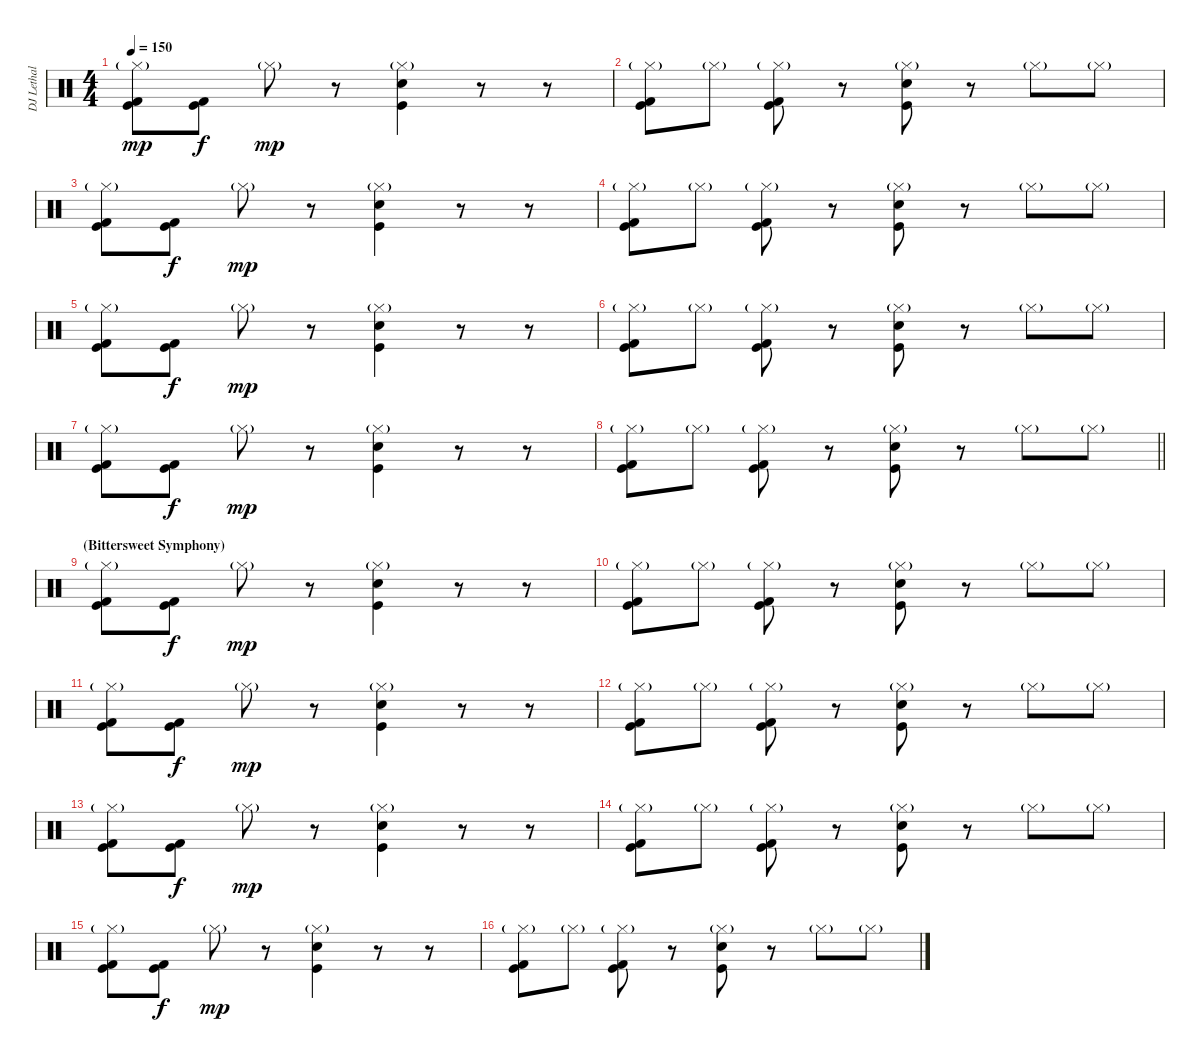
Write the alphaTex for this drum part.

\track ("DJ Lethal (Beats 2)" "DJ Lethal ") {instrument percussion}
\staff {score}
\articulation defaults
\ts (4 4)
\tempo 150
\clef neutral
\ks c
("Hi-Hat (closed)"{g} "Kick (hit) 2" "Kick (hit)").8{dy mp} ("Kick (hit) 2" "Kick (hit)").8{dy f} "Hi-Hat (closed)"{g}.8{dy mp} r.8 ("Hi-Hat (closed)"{g} "Snare (hit) 2" "Kick (hit)").4 r.8 r.8 |
("Hi-Hat (closed)"{g} "Kick (hit) 2" "Kick (hit)").8 "Hi-Hat (closed)"{g}.8 ("Hi-Hat (closed)"{g} "Kick (hit) 2" "Kick (hit)").8 r.8 ("Hi-Hat (closed)"{g} "Snare (hit) 2" "Kick (hit)").8 r.8 "Hi-Hat (closed)"{g}.8 "Hi-Hat (closed)"{g}.8 |
("Hi-Hat (closed)"{g} "Kick (hit) 2" "Kick (hit)").8 ("Kick (hit) 2" "Kick (hit)").8{dy f} "Hi-Hat (closed)"{g}.8{dy mp} r.8 ("Hi-Hat (closed)"{g} "Snare (hit) 2" "Kick (hit)").4 r.8 r.8 |
("Hi-Hat (closed)"{g} "Kick (hit) 2" "Kick (hit)").8 "Hi-Hat (closed)"{g}.8 ("Hi-Hat (closed)"{g} "Kick (hit) 2" "Kick (hit)").8 r.8 ("Hi-Hat (closed)"{g} "Snare (hit) 2" "Kick (hit)").8 r.8 "Hi-Hat (closed)"{g}.8 "Hi-Hat (closed)"{g}.8 |
("Hi-Hat (closed)"{g} "Kick (hit) 2" "Kick (hit)").8 ("Kick (hit) 2" "Kick (hit)").8{dy f} "Hi-Hat (closed)"{g}.8{dy mp} r.8 ("Hi-Hat (closed)"{g} "Snare (hit) 2" "Kick (hit)").4 r.8 r.8 |
("Hi-Hat (closed)"{g} "Kick (hit) 2" "Kick (hit)").8 "Hi-Hat (closed)"{g}.8 ("Hi-Hat (closed)"{g} "Kick (hit) 2" "Kick (hit)").8 r.8 ("Hi-Hat (closed)"{g} "Snare (hit) 2" "Kick (hit)").8 r.8 "Hi-Hat (closed)"{g}.8 "Hi-Hat (closed)"{g}.8 |
("Hi-Hat (closed)"{g} "Kick (hit) 2" "Kick (hit)").8 ("Kick (hit) 2" "Kick (hit)").8{dy f} "Hi-Hat (closed)"{g}.8{dy mp} r.8 ("Hi-Hat (closed)"{g} "Snare (hit) 2" "Kick (hit)").4 r.8 r.8 |
\barLineRight lightlight
("Hi-Hat (closed)"{g} "Kick (hit) 2" "Kick (hit)").8 "Hi-Hat (closed)"{g}.8 ("Hi-Hat (closed)"{g} "Kick (hit) 2" "Kick (hit)").8 r.8 ("Hi-Hat (closed)"{g} "Snare (hit) 2" "Kick (hit)").8 r.8 "Hi-Hat (closed)"{g}.8 "Hi-Hat (closed)"{g}.8 |
\section ("" "(Bittersweet Symphony)")
("Hi-Hat (closed)"{g} "Kick (hit) 2" "Kick (hit)").8 ("Kick (hit) 2" "Kick (hit)").8{dy f} "Hi-Hat (closed)"{g}.8{dy mp} r.8 ("Hi-Hat (closed)"{g} "Snare (hit) 2" "Kick (hit)").4 r.8 r.8 |
("Hi-Hat (closed)"{g} "Kick (hit) 2" "Kick (hit)").8 "Hi-Hat (closed)"{g}.8 ("Hi-Hat (closed)"{g} "Kick (hit) 2" "Kick (hit)").8 r.8 ("Hi-Hat (closed)"{g} "Snare (hit) 2" "Kick (hit)").8 r.8 "Hi-Hat (closed)"{g}.8 "Hi-Hat (closed)"{g}.8 |
("Hi-Hat (closed)"{g} "Kick (hit) 2" "Kick (hit)").8 ("Kick (hit) 2" "Kick (hit)").8{dy f} "Hi-Hat (closed)"{g}.8{dy mp} r.8 ("Hi-Hat (closed)"{g} "Snare (hit) 2" "Kick (hit)").4 r.8 r.8 |
("Hi-Hat (closed)"{g} "Kick (hit) 2" "Kick (hit)").8 "Hi-Hat (closed)"{g}.8 ("Hi-Hat (closed)"{g} "Kick (hit) 2" "Kick (hit)").8 r.8 ("Hi-Hat (closed)"{g} "Snare (hit) 2" "Kick (hit)").8 r.8 "Hi-Hat (closed)"{g}.8 "Hi-Hat (closed)"{g}.8 |
("Hi-Hat (closed)"{g} "Kick (hit) 2" "Kick (hit)").8 ("Kick (hit) 2" "Kick (hit)").8{dy f} "Hi-Hat (closed)"{g}.8{dy mp} r.8 ("Hi-Hat (closed)"{g} "Snare (hit) 2" "Kick (hit)").4 r.8 r.8 |
("Hi-Hat (closed)"{g} "Kick (hit) 2" "Kick (hit)").8 "Hi-Hat (closed)"{g}.8 ("Hi-Hat (closed)"{g} "Kick (hit) 2" "Kick (hit)").8 r.8 ("Hi-Hat (closed)"{g} "Snare (hit) 2" "Kick (hit)").8 r.8 "Hi-Hat (closed)"{g}.8 "Hi-Hat (closed)"{g}.8 |
("Hi-Hat (closed)"{g} "Kick (hit) 2" "Kick (hit)").8 ("Kick (hit) 2" "Kick (hit)").8{dy f} "Hi-Hat (closed)"{g}.8{dy mp} r.8 ("Hi-Hat (closed)"{g} "Snare (hit) 2" "Kick (hit)").4 r.8 r.8 |
("Hi-Hat (closed)"{g} "Kick (hit) 2" "Kick (hit)").8 "Hi-Hat (closed)"{g}.8 ("Hi-Hat (closed)"{g} "Kick (hit) 2" "Kick (hit)").8 r.8 ("Hi-Hat (closed)"{g} "Snare (hit) 2" "Kick (hit)").8 r.8 "Hi-Hat (closed)"{g}.8 "Hi-Hat (closed)"{g}.8
